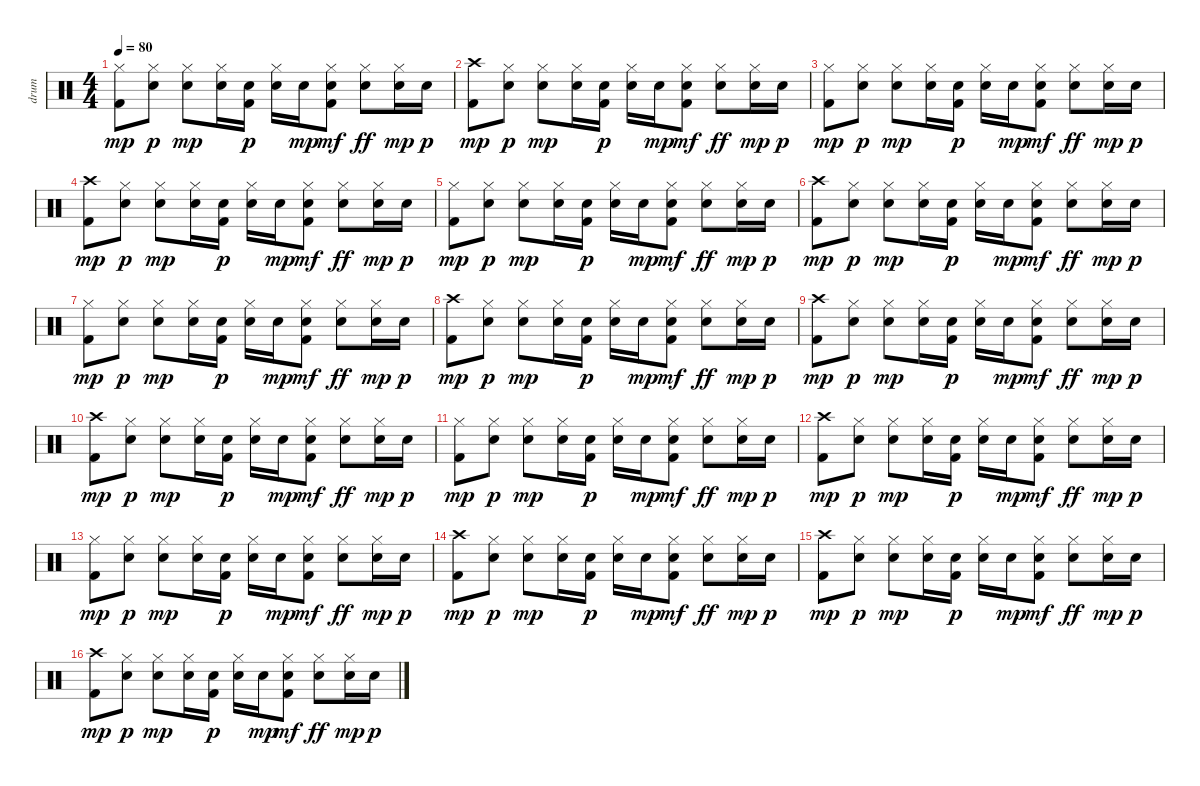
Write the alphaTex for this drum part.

\track ("drum" "drum") {instrument percussion}
\staff {score}
\articulation defaults
\ts (4 4)
\tempo 80
\clef neutral
\ks c
("Hi-Hat (closed)" "Kick (hit) 2").8{dy mp} ("Hi-Hat (closed)" "Snare (hit) 2").8{dy p} ("Hi-Hat (closed)" "Snare (hit) 2").8{dy mp} ("Hi-Hat (closed)" "Snare (hit) 2").16 ("Snare (hit) 2" "Kick (hit) 2").16{dy p} ("Hi-Hat (closed)" "Snare (hit) 2").16 "Snare (hit) 2".16{dy mp} ("Hi-Hat (closed)" "Snare (hit) 2" "Kick (hit) 2").8{dy mf} ("Hi-Hat (closed)" "Snare (hit) 2").8{dy ff} ("Hi-Hat (closed)" "Snare (hit) 2").16{dy mp} "Snare (hit) 2".16{dy p} |
("Crash high (hit)" "Kick (hit) 2").8{dy mp} ("Hi-Hat (closed)" "Snare (hit) 2").8{dy p} ("Hi-Hat (closed)" "Snare (hit) 2").8{dy mp} ("Hi-Hat (closed)" "Snare (hit) 2").16 ("Snare (hit) 2" "Kick (hit) 2").16{dy p} ("Hi-Hat (closed)" "Snare (hit) 2").16 "Snare (hit) 2".16{dy mp} ("Hi-Hat (closed)" "Snare (hit) 2" "Kick (hit) 2").8{dy mf} ("Hi-Hat (closed)" "Snare (hit) 2").8{dy ff} ("Hi-Hat (closed)" "Snare (hit) 2").16{dy mp} "Snare (hit) 2".16{dy p} |
("Hi-Hat (closed)" "Kick (hit) 2").8{dy mp} ("Hi-Hat (closed)" "Snare (hit) 2").8{dy p} ("Hi-Hat (closed)" "Snare (hit) 2").8{dy mp} ("Hi-Hat (closed)" "Snare (hit) 2").16 ("Snare (hit) 2" "Kick (hit) 2").16{dy p} ("Hi-Hat (closed)" "Snare (hit) 2").16 "Snare (hit) 2".16{dy mp} ("Hi-Hat (closed)" "Snare (hit) 2" "Kick (hit) 2").8{dy mf} ("Hi-Hat (closed)" "Snare (hit) 2").8{dy ff} ("Hi-Hat (closed)" "Snare (hit) 2").16{dy mp} "Snare (hit) 2".16{dy p} |
("Crash high (hit)" "Kick (hit) 2").8{dy mp} ("Hi-Hat (closed)" "Snare (hit) 2").8{dy p} ("Hi-Hat (closed)" "Snare (hit) 2").8{dy mp} ("Hi-Hat (closed)" "Snare (hit) 2").16 ("Snare (hit) 2" "Kick (hit) 2").16{dy p} ("Hi-Hat (closed)" "Snare (hit) 2").16 "Snare (hit) 2".16{dy mp} ("Hi-Hat (closed)" "Snare (hit) 2" "Kick (hit) 2").8{dy mf} ("Hi-Hat (closed)" "Snare (hit) 2").8{dy ff} ("Hi-Hat (closed)" "Snare (hit) 2").16{dy mp} "Snare (hit) 2".16{dy p} |
("Hi-Hat (closed)" "Kick (hit) 2").8{dy mp} ("Hi-Hat (closed)" "Snare (hit) 2").8{dy p} ("Hi-Hat (closed)" "Snare (hit) 2").8{dy mp} ("Hi-Hat (closed)" "Snare (hit) 2").16 ("Snare (hit) 2" "Kick (hit) 2").16{dy p} ("Hi-Hat (closed)" "Snare (hit) 2").16 "Snare (hit) 2".16{dy mp} ("Hi-Hat (closed)" "Snare (hit) 2" "Kick (hit) 2").8{dy mf} ("Hi-Hat (closed)" "Snare (hit) 2").8{dy ff} ("Hi-Hat (closed)" "Snare (hit) 2").16{dy mp} "Snare (hit) 2".16{dy p} |
("Crash high (hit)" "Kick (hit) 2").8{dy mp} ("Hi-Hat (closed)" "Snare (hit) 2").8{dy p} ("Hi-Hat (closed)" "Snare (hit) 2").8{dy mp} ("Hi-Hat (closed)" "Snare (hit) 2").16 ("Snare (hit) 2" "Kick (hit) 2").16{dy p} ("Hi-Hat (closed)" "Snare (hit) 2").16 "Snare (hit) 2".16{dy mp} ("Hi-Hat (closed)" "Snare (hit) 2" "Kick (hit) 2").8{dy mf} ("Hi-Hat (closed)" "Snare (hit) 2").8{dy ff} ("Hi-Hat (closed)" "Snare (hit) 2").16{dy mp} "Snare (hit) 2".16{dy p} |
("Hi-Hat (closed)" "Kick (hit) 2").8{dy mp} ("Hi-Hat (closed)" "Snare (hit) 2").8{dy p} ("Hi-Hat (closed)" "Snare (hit) 2").8{dy mp} ("Hi-Hat (closed)" "Snare (hit) 2").16 ("Snare (hit) 2" "Kick (hit) 2").16{dy p} ("Hi-Hat (closed)" "Snare (hit) 2").16 "Snare (hit) 2".16{dy mp} ("Hi-Hat (closed)" "Snare (hit) 2" "Kick (hit) 2").8{dy mf} ("Hi-Hat (closed)" "Snare (hit) 2").8{dy ff} ("Hi-Hat (closed)" "Snare (hit) 2").16{dy mp} "Snare (hit) 2".16{dy p} |
("Crash high (hit)" "Kick (hit) 2").8{dy mp} ("Hi-Hat (closed)" "Snare (hit) 2").8{dy p} ("Hi-Hat (closed)" "Snare (hit) 2").8{dy mp} ("Hi-Hat (closed)" "Snare (hit) 2").16 ("Snare (hit) 2" "Kick (hit) 2").16{dy p} ("Hi-Hat (closed)" "Snare (hit) 2").16 "Snare (hit) 2".16{dy mp} ("Hi-Hat (closed)" "Snare (hit) 2" "Kick (hit) 2").8{dy mf} ("Hi-Hat (closed)" "Snare (hit) 2").8{dy ff} ("Hi-Hat (closed)" "Snare (hit) 2").16{dy mp} "Snare (hit) 2".16{dy p} |
("Crash high (hit)" "Kick (hit) 2").8{dy mp} ("Hi-Hat (closed)" "Snare (hit) 2").8{dy p} ("Hi-Hat (closed)" "Snare (hit) 2").8{dy mp} ("Hi-Hat (closed)" "Snare (hit) 2").16 ("Snare (hit) 2" "Kick (hit) 2").16{dy p} ("Hi-Hat (closed)" "Snare (hit) 2").16 "Snare (hit) 2".16{dy mp} ("Hi-Hat (closed)" "Snare (hit) 2" "Kick (hit) 2").8{dy mf} ("Hi-Hat (closed)" "Snare (hit) 2").8{dy ff} ("Hi-Hat (closed)" "Snare (hit) 2").16{dy mp} "Snare (hit) 2".16{dy p} |
("Crash high (hit)" "Kick (hit) 2").8{dy mp} ("Hi-Hat (closed)" "Snare (hit) 2").8{dy p} ("Hi-Hat (closed)" "Snare (hit) 2").8{dy mp} ("Hi-Hat (closed)" "Snare (hit) 2").16 ("Snare (hit) 2" "Kick (hit) 2").16{dy p} ("Hi-Hat (closed)" "Snare (hit) 2").16 "Snare (hit) 2".16{dy mp} ("Hi-Hat (closed)" "Snare (hit) 2" "Kick (hit) 2").8{dy mf} ("Hi-Hat (closed)" "Snare (hit) 2").8{dy ff} ("Hi-Hat (closed)" "Snare (hit) 2").16{dy mp} "Snare (hit) 2".16{dy p} |
("Hi-Hat (closed)" "Kick (hit) 2").8{dy mp} ("Hi-Hat (closed)" "Snare (hit) 2").8{dy p} ("Hi-Hat (closed)" "Snare (hit) 2").8{dy mp} ("Hi-Hat (closed)" "Snare (hit) 2").16 ("Snare (hit) 2" "Kick (hit) 2").16{dy p} ("Hi-Hat (closed)" "Snare (hit) 2").16 "Snare (hit) 2".16{dy mp} ("Hi-Hat (closed)" "Snare (hit) 2" "Kick (hit) 2").8{dy mf} ("Hi-Hat (closed)" "Snare (hit) 2").8{dy ff} ("Hi-Hat (closed)" "Snare (hit) 2").16{dy mp} "Snare (hit) 2".16{dy p} |
("Crash high (hit)" "Kick (hit) 2").8{dy mp} ("Hi-Hat (closed)" "Snare (hit) 2").8{dy p} ("Hi-Hat (closed)" "Snare (hit) 2").8{dy mp} ("Hi-Hat (closed)" "Snare (hit) 2").16 ("Snare (hit) 2" "Kick (hit) 2").16{dy p} ("Hi-Hat (closed)" "Snare (hit) 2").16 "Snare (hit) 2".16{dy mp} ("Hi-Hat (closed)" "Snare (hit) 2" "Kick (hit) 2").8{dy mf} ("Hi-Hat (closed)" "Snare (hit) 2").8{dy ff} ("Hi-Hat (closed)" "Snare (hit) 2").16{dy mp} "Snare (hit) 2".16{dy p} |
("Hi-Hat (closed)" "Kick (hit) 2").8{dy mp} ("Hi-Hat (closed)" "Snare (hit) 2").8{dy p} ("Hi-Hat (closed)" "Snare (hit) 2").8{dy mp} ("Hi-Hat (closed)" "Snare (hit) 2").16 ("Snare (hit) 2" "Kick (hit) 2").16{dy p} ("Hi-Hat (closed)" "Snare (hit) 2").16 "Snare (hit) 2".16{dy mp} ("Hi-Hat (closed)" "Snare (hit) 2" "Kick (hit) 2").8{dy mf} ("Hi-Hat (closed)" "Snare (hit) 2").8{dy ff} ("Hi-Hat (closed)" "Snare (hit) 2").16{dy mp} "Snare (hit) 2".16{dy p} |
("Crash high (hit)" "Kick (hit) 2").8{dy mp} ("Hi-Hat (closed)" "Snare (hit) 2").8{dy p} ("Hi-Hat (closed)" "Snare (hit) 2").8{dy mp} ("Hi-Hat (closed)" "Snare (hit) 2").16 ("Snare (hit) 2" "Kick (hit) 2").16{dy p} ("Hi-Hat (closed)" "Snare (hit) 2").16 "Snare (hit) 2".16{dy mp} ("Hi-Hat (closed)" "Snare (hit) 2" "Kick (hit) 2").8{dy mf} ("Hi-Hat (closed)" "Snare (hit) 2").8{dy ff} ("Hi-Hat (closed)" "Snare (hit) 2").16{dy mp} "Snare (hit) 2".16{dy p} |
("Crash high (hit)" "Kick (hit) 2").8{dy mp} ("Hi-Hat (closed)" "Snare (hit) 2").8{dy p} ("Hi-Hat (closed)" "Snare (hit) 2").8{dy mp} ("Hi-Hat (closed)" "Snare (hit) 2").16 ("Snare (hit) 2" "Kick (hit) 2").16{dy p} ("Hi-Hat (closed)" "Snare (hit) 2").16 "Snare (hit) 2".16{dy mp} ("Hi-Hat (closed)" "Snare (hit) 2" "Kick (hit) 2").8{dy mf} ("Hi-Hat (closed)" "Snare (hit) 2").8{dy ff} ("Hi-Hat (closed)" "Snare (hit) 2").16{dy mp} "Snare (hit) 2".16{dy p} |
("Crash high (hit)" "Kick (hit) 2").8{dy mp} ("Hi-Hat (closed)" "Snare (hit) 2").8{dy p} ("Hi-Hat (closed)" "Snare (hit) 2").8{dy mp} ("Hi-Hat (closed)" "Snare (hit) 2").16 ("Snare (hit) 2" "Kick (hit) 2").16{dy p} ("Hi-Hat (closed)" "Snare (hit) 2").16 "Snare (hit) 2".16{dy mp} ("Hi-Hat (closed)" "Snare (hit) 2" "Kick (hit) 2").8{dy mf} ("Hi-Hat (closed)" "Snare (hit) 2").8{dy ff} ("Hi-Hat (closed)" "Snare (hit) 2").16{dy mp} "Snare (hit) 2".16{dy p}
